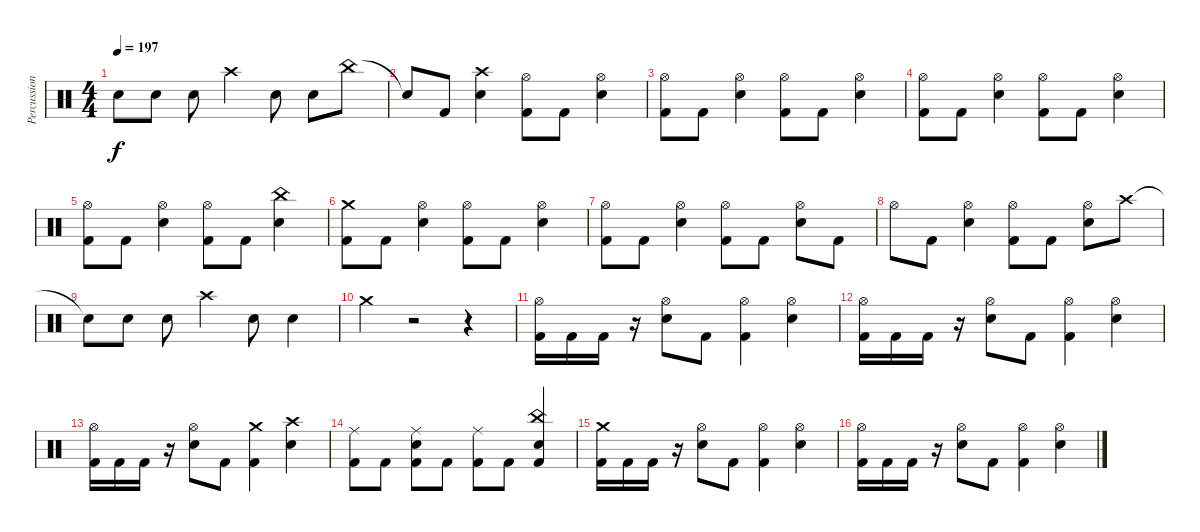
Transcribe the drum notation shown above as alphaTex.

\track ("Percussions" "Percussion") {instrument percussion}
\staff {score}
\articulation defaults
\ts (4 4)
\tempo 197
\clef neutral
\ks c "Snare (hit)"{t}.8{dy f} "Snare (hit) 2".8 "Snare (hit) 2".8 "Crash high (hit)".4 "Snare (hit) 2".8 "Snare (hit) 2".8 "China (hit)".8
|
"Snare (hit)"{t}.8 "Kick (hit) 2".8 ("Crash high (hit)" "Snare (hit) 2").4 ("Hi-Hat (open)" "Kick (hit) 2").8 "Kick (hit) 2".8 ("Hi-Hat (open)" "Snare (hit) 2").4 |
("Hi-Hat (open)" "Kick (hit) 2").8 "Kick (hit) 2".8 ("Hi-Hat (open)" "Snare (hit) 2").4 ("Hi-Hat (open)" "Kick (hit) 2").8 "Kick (hit) 2".8 ("Hi-Hat (open)" "Snare (hit) 2").4 |
("Hi-Hat (open)" "Kick (hit) 2").8 "Kick (hit) 2".8 ("Hi-Hat (open)" "Snare (hit) 2").4 ("Hi-Hat (open)" "Kick (hit) 2").8 "Kick (hit) 2".8 ("Hi-Hat (open)" "Snare (hit) 2").4 |
("Hi-Hat (open)" "Kick (hit) 2").8 "Kick (hit) 2".8 ("Hi-Hat (open)" "Snare (hit) 2").4 ("Hi-Hat (open)" "Kick (hit) 2").8 "Kick (hit) 2".8 ("China (hit)" "Snare (hit) 2").4 |
("Crash medium (hit)" "Kick (hit) 2").8 "Kick (hit) 2".8 ("Hi-Hat (open)" "Snare (hit) 2").4 ("Hi-Hat (open)" "Kick (hit) 2").8 "Kick (hit) 2".8 ("Hi-Hat (open)" "Snare (hit) 2").4 |
("Hi-Hat (open)" "Kick (hit) 2").8 "Kick (hit) 2".8 ("Hi-Hat (open)" "Snare (hit) 2").4 ("Hi-Hat (open)" "Kick (hit) 2").8 "Kick (hit) 2".8 ("Hi-Hat (open)" "Snare (hit) 2").8 "Kick (hit) 2".8 |
"Hi-Hat (open)".8 "Kick (hit) 2".8 ("Hi-Hat (open)" "Snare (hit) 2").4 ("Hi-Hat (open)" "Kick (hit) 2").8 "Kick (hit) 2".8 ("Hi-Hat (open)" "Snare (hit) 2").8 "Crash high (hit)".8 |
"Snare (hit)"{t}.8 "Snare (hit) 2".8 "Snare (hit) 2".8 "Crash high (hit)".4 "Snare (hit) 2".8 "Snare (hit) 2".4 |
"Crash medium (hit)".4 r.2 r.4 |
("Hi-Hat (open)" "Kick (hit) 2").16 "Kick (hit) 2".16 "Kick (hit) 2".16 r.16 ("Hi-Hat (open)" "Snare (hit) 2").8 "Kick (hit) 2".8 ("Hi-Hat (open)" "Kick (hit) 2").4 ("Hi-Hat (open)" "Snare (hit) 2").4 |
("Hi-Hat (open)" "Kick (hit) 2").16 "Kick (hit) 2".16 "Kick (hit) 2".16 r.16 ("Hi-Hat (open)" "Snare (hit) 2").8 "Kick (hit) 2".8 ("Hi-Hat (open)" "Kick (hit) 2").4 ("Hi-Hat (open)" "Snare (hit) 2").4 |
("Hi-Hat (open)" "Kick (hit) 2").16 "Kick (hit) 2".16 "Kick (hit) 2".16 r.16 ("Hi-Hat (open)" "Snare (hit) 2").8 "Kick (hit) 2".8 ("Crash medium (hit)" "Kick (hit) 2").4 ("Crash high (hit)" "Snare (hit) 2").4 |
("Ride (middle)" "Kick (hit) 2").8 "Kick (hit) 2".8 ("Ride (middle)" "Snare (hit) 2" "Kick (hit) 2").8 "Kick (hit) 2".8 ("Ride (middle)" "Kick (hit) 2").8 "Kick (hit) 2".8 ("China (hit)" "Snare (hit) 2" "Kick (hit) 2").4 |
("Crash medium (hit)" "Kick (hit) 2").16 "Kick (hit) 2".16 "Kick (hit) 2".16 r.16 ("Hi-Hat (open)" "Snare (hit) 2").8 "Kick (hit) 2".8 ("Hi-Hat (open)" "Kick (hit) 2").4 ("Hi-Hat (open)" "Snare (hit) 2").4 |
("Hi-Hat (open)" "Kick (hit) 2").16 "Kick (hit) 2".16 "Kick (hit) 2".16 r.16 ("Hi-Hat (open)" "Snare (hit) 2").8 "Kick (hit) 2".8 ("Hi-Hat (open)" "Kick (hit) 2").4 ("Hi-Hat (open)" "Snare (hit) 2").4
